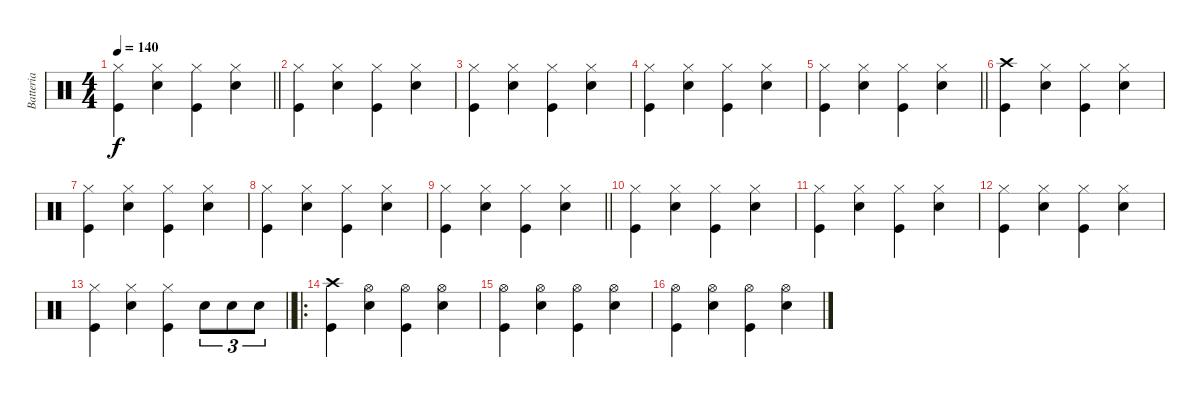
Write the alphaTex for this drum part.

\track ("Batteria" "Batteria") {instrument percussion}
\staff {score}
\articulation defaults
\ts (4 4)
\tempo 140
\clef neutral
\barLineRight lightlight
\ks c
("Hi-Hat (closed)" "Kick (hit)").4{dy f} ("Snare (hit) 2" "Hi-Hat (closed)").4 ("Hi-Hat (closed)" "Kick (hit)").4 ("Hi-Hat (closed)" "Snare (hit) 2").4 |
("Hi-Hat (closed)" "Kick (hit)").4 ("Snare (hit) 2" "Hi-Hat (closed)").4 ("Hi-Hat (closed)" "Kick (hit)").4 ("Hi-Hat (closed)" "Snare (hit) 2").4 |
("Hi-Hat (closed)" "Kick (hit)").4 ("Snare (hit) 2" "Hi-Hat (closed)").4 ("Hi-Hat (closed)" "Kick (hit)").4 ("Hi-Hat (closed)" "Snare (hit) 2").4 |
("Hi-Hat (closed)" "Kick (hit)").4 ("Snare (hit) 2" "Hi-Hat (closed)").4 ("Hi-Hat (closed)" "Kick (hit)").4 ("Hi-Hat (closed)" "Snare (hit) 2").4 |
\barLineRight lightlight
("Hi-Hat (closed)" "Kick (hit)").4 ("Snare (hit) 2" "Hi-Hat (closed)").4 ("Hi-Hat (closed)" "Kick (hit)").4 ("Hi-Hat (closed)" "Snare (hit) 2").4 |
("Crash high (hit)" "Kick (hit)").4 ("Snare (hit) 2" "Hi-Hat (closed)").4 ("Hi-Hat (closed)" "Kick (hit)").4 ("Hi-Hat (closed)" "Snare (hit) 2").4 |
("Hi-Hat (closed)" "Kick (hit)").4 ("Snare (hit) 2" "Hi-Hat (closed)").4 ("Hi-Hat (closed)" "Kick (hit)").4 ("Hi-Hat (closed)" "Snare (hit) 2").4 |
("Hi-Hat (closed)" "Kick (hit)").4 ("Snare (hit) 2" "Hi-Hat (closed)").4 ("Hi-Hat (closed)" "Kick (hit)").4 ("Hi-Hat (closed)" "Snare (hit) 2").4 |
\barLineRight lightlight
("Hi-Hat (closed)" "Kick (hit)").4 ("Snare (hit) 2" "Hi-Hat (closed)").4 ("Hi-Hat (closed)" "Kick (hit)").4 ("Hi-Hat (closed)" "Snare (hit) 2").4 |
("Hi-Hat (closed)" "Kick (hit)").4 ("Snare (hit) 2" "Hi-Hat (closed)").4 ("Hi-Hat (closed)" "Kick (hit)").4 ("Hi-Hat (closed)" "Snare (hit) 2").4 |
("Hi-Hat (closed)" "Kick (hit)").4 ("Snare (hit) 2" "Hi-Hat (closed)").4 ("Hi-Hat (closed)" "Kick (hit)").4 ("Hi-Hat (closed)" "Snare (hit) 2").4 |
("Hi-Hat (closed)" "Kick (hit)").4 ("Snare (hit) 2" "Hi-Hat (closed)").4 ("Hi-Hat (closed)" "Kick (hit)").4 ("Hi-Hat (closed)" "Snare (hit) 2").4 |
\barLineRight lightlight
("Hi-Hat (closed)" "Kick (hit)").4 ("Snare (hit) 2" "Hi-Hat (closed)").4 ("Hi-Hat (closed)" "Kick (hit)").4 "Snare (hit) 2".8{tu (3 2)} "Snare (hit) 2".8{tu (3 2)} "Snare (hit) 2".8{tu (3 2)} |
\ro
("Crash high (hit)" "Kick (hit)").4 ("Snare (hit) 2" "Hi-Hat (open)").4 ("Hi-Hat (open)" "Kick (hit)").4 ("Hi-Hat (open)" "Snare (hit) 2").4 |
("Hi-Hat (open)" "Kick (hit)").4 ("Snare (hit) 2" "Hi-Hat (open)").4 ("Hi-Hat (open)" "Kick (hit)").4 ("Snare (hit) 2" "Hi-Hat (open)").4 |
("Hi-Hat (open)" "Kick (hit)").4 ("Snare (hit) 2" "Hi-Hat (open)").4 ("Hi-Hat (open)" "Kick (hit)").4 ("Snare (hit) 2" "Hi-Hat (open)").4
